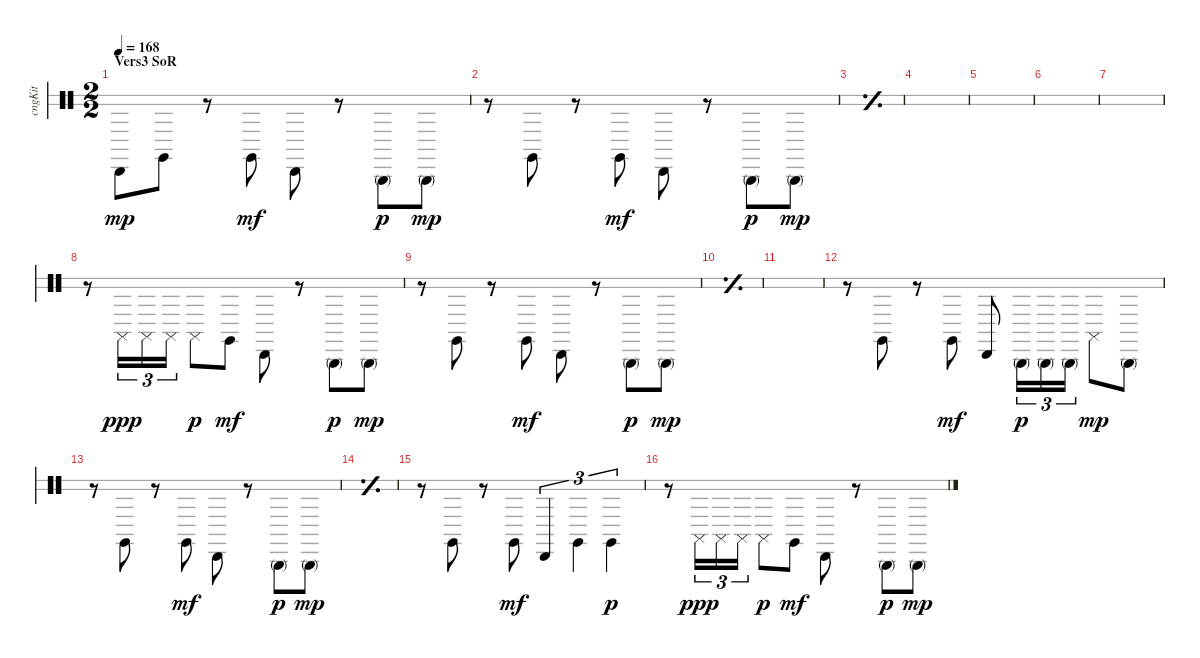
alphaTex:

\bracketExtendMode groupsimilarinstruments
\multiTrackTrackNamePolicy hidden
\otherSystemsTrackNameOrientation horizontal
\track ("Congas" "cngKit") {instrument percussion}
\staff {score 2}
\articulation defaults
\ts (2 2)
\section ("" "Vers3 SoR")
\tempo 168
\clef neutral
\ks c "Conga low (hit)".8{dy mp beam Down} "Conga high (hit)".8{beam Down}
r.8{beam Down} "Conga high (hit)".8{dy mf beam Down} "Conga low (hit)".8{beam Down} r.8{beam Down} "Conga high (mute)".8{dy p beam Down} "Conga high (mute)".8{dy mp beam Down} |
r.8{beam Down} "Conga high (hit)".8{beam Down} r.8{beam Down} "Conga high (hit)".8{dy mf beam Down} "Conga low (hit)".8{beam Down} r.8{beam Down} "Conga high (mute)".8{dy p beam Down} "Conga high (mute)".8{dy mp beam Down} |
\simile simple
|
|
|
|
|
\simile none
r.8{beam Down} "Conga high (slap)".16{tu (3 2) dy ppp beam Down} "Conga high (slap)".16{tu (3 2) beam Down} "Conga high (slap)".16{tu (3 2) beam Down} "Conga high (slap)".8{dy p beam Down} "Conga high (hit)".8{dy mf beam Down} "Conga low (hit)".8{beam Down} r.8{beam Down} "Conga high (mute)".8{dy p beam Down} "Conga high (mute)".8{dy mp beam Down} |
r.8{beam Down} "Conga high (hit)".8{beam Down} r.8{beam Down} "Conga high (hit)".8{dy mf beam Down} "Conga low (hit)".8{beam Down} r.8{beam Down} "Conga high (mute)".8{dy p beam Down} "Conga high (mute)".8{dy mp beam Down} |
\simile simple
|
|
\simile none
r.8{beam Down} "Conga high (hit)".8{beam Down} r.8{beam Down} "Conga high (hit)".8{dy mf beam Down} "Conga low (hit)".8{beam Up} "Conga high (mute)".16{tu (3 2) dy p beam Down} "Conga high (mute)".16{tu (3 2) beam Down} "Conga high (mute)".16{tu (3 2) beam Down} "Conga high (slap)".8{dy mp beam Down} "Conga high (mute)".8{beam Down} |
r.8{beam Down} "Conga high (hit)".8{beam Down} r.8{beam Down} "Conga high (hit)".8{dy mf beam Down} "Conga low (hit)".8{beam Down} r.8{beam Down} "Conga high (mute)".8{dy p beam Down} "Conga high (mute)".8{dy mp beam Down} |
\simile simple
|
\simile none
r.8{beam Down} "Conga high (hit)".8{beam Down} r.8{beam Down} "Conga high (hit)".8{dy mf beam Down} "Conga low (hit)".4{tu (3 2) beam Up} "Conga high (hit)".4{tu (3 2) beam Down} "Conga high (hit)".4{tu (3 2) dy p beam Down} |
r.8{beam Down} "Conga high (slap)".16{tu (3 2) dy ppp beam Down} "Conga high (slap)".16{tu (3 2) beam Down} "Conga high (slap)".16{tu (3 2) beam Down} "Conga high (slap)".8{dy p beam Down} "Conga high (hit)".8{dy mf beam Down} "Conga low (hit)".8{beam Down} r.8{beam Down} "Conga high (mute)".8{dy p beam Down} "Conga high (mute)".8{dy mp beam Down}
